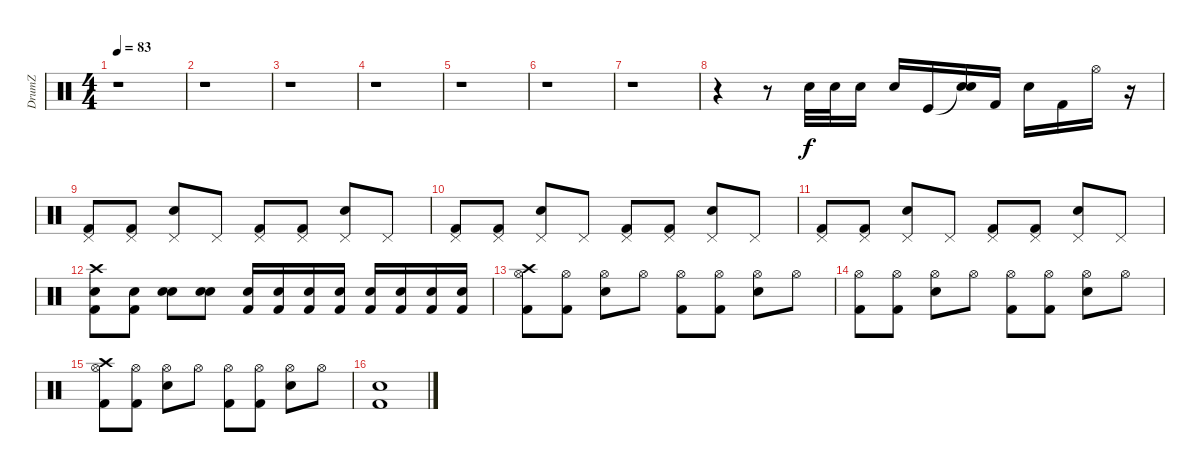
\track ("DrumZ" "DrumZ") {instrument percussion}
\staff {score}
\articulation defaults
\ts (4 4)
\tempo 83
\clef neutral
\ks c
r.1{dy f} |
r.1 |
r.1 |
r.1 |
r.1 |
r.1 |
r.1 |
r.4 r.8 "Snare (hit) 2".32 "Snare (hit) 2".32 "Snare (hit) 2".16 "Snare (hit) 2".16 "Kick (hit)".16 ("Electric Snare (hit)"{t} "Electric Snare (hit)").16 "Kick (hit) 2".16 "Electric Snare (hit)".16 "Kick (hit) 2".16 "Hi-Hat (open)".16 r.16 |
("Pedal Hi-Hat (hit)" "Kick (hit) 2").8 ("Pedal Hi-Hat (hit)" "Kick (hit) 2").8 ("Pedal Hi-Hat (hit)" "Electric Snare (hit)").8 "Pedal Hi-Hat (hit)".8 ("Pedal Hi-Hat (hit)" "Kick (hit) 2").8 ("Pedal Hi-Hat (hit)" "Kick (hit) 2").8 ("Pedal Hi-Hat (hit)" "Electric Snare (hit)").8 "Pedal Hi-Hat (hit)".8 |
("Pedal Hi-Hat (hit)" "Kick (hit) 2").8 ("Pedal Hi-Hat (hit)" "Kick (hit) 2").8 ("Pedal Hi-Hat (hit)" "Electric Snare (hit)").8 "Pedal Hi-Hat (hit)".8 ("Pedal Hi-Hat (hit)" "Kick (hit) 2").8 ("Pedal Hi-Hat (hit)" "Kick (hit) 2").8 ("Pedal Hi-Hat (hit)" "Electric Snare (hit)").8 "Pedal Hi-Hat (hit)".8 |
("Pedal Hi-Hat (hit)" "Kick (hit) 2").8 ("Pedal Hi-Hat (hit)" "Kick (hit) 2").8 ("Pedal Hi-Hat (hit)" "Electric Snare (hit)").8 "Pedal Hi-Hat (hit)".8 ("Pedal Hi-Hat (hit)" "Kick (hit) 2").8 ("Pedal Hi-Hat (hit)" "Kick (hit) 2").8 ("Pedal Hi-Hat (hit)" "Electric Snare (hit)").8 "Pedal Hi-Hat (hit)".8 |
("Snare (hit) 2" "Crash high (hit)" "Kick (hit) 2").8 ("Snare (hit) 2" "Kick (hit) 2").8 ("Snare (hit) 2" "Electric Snare (hit)").8 ("Snare (hit) 2" "Electric Snare (hit)").8 ("Snare (hit) 2" "Kick (hit) 2").16 ("Snare (hit) 2" "Kick (hit) 2").16 ("Snare (hit) 2" "Kick (hit) 2").16 ("Snare (hit) 2" "Kick (hit) 2").16 ("Snare (hit) 2" "Kick (hit) 2").16 ("Snare (hit) 2" "Kick (hit) 2").16 ("Snare (hit) 2" "Kick (hit) 2").16 ("Snare (hit) 2" "Kick (hit) 2").16 |
("Hi-Hat (open)" "Crash high (hit)" "Kick (hit) 2").8 ("Hi-Hat (open)" "Kick (hit) 2").8 ("Hi-Hat (open)" "Electric Snare (hit)").8 "Hi-Hat (open)".8 ("Hi-Hat (open)" "Kick (hit) 2").8 ("Hi-Hat (open)" "Kick (hit) 2").8 ("Hi-Hat (open)" "Electric Snare (hit)").8 "Hi-Hat (open)".8 |
("Hi-Hat (open)" "Kick (hit) 2").8 ("Hi-Hat (open)" "Kick (hit) 2").8 ("Hi-Hat (open)" "Electric Snare (hit)").8 "Hi-Hat (open)".8 ("Hi-Hat (open)" "Kick (hit) 2").8 ("Hi-Hat (open)" "Kick (hit) 2").8 ("Hi-Hat (open)" "Electric Snare (hit)").8 "Hi-Hat (open)".8 |
("Hi-Hat (open)" "Crash high (hit)" "Kick (hit) 2").8 ("Hi-Hat (open)" "Kick (hit) 2").8 ("Hi-Hat (open)" "Electric Snare (hit)").8 "Hi-Hat (open)".8 ("Hi-Hat (open)" "Kick (hit) 2").8 ("Hi-Hat (open)" "Kick (hit) 2").8 ("Hi-Hat (open)" "Electric Snare (hit)").8 "Hi-Hat (open)".8 |
("Kick (hit) 2" "Electric Snare (hit)").1
